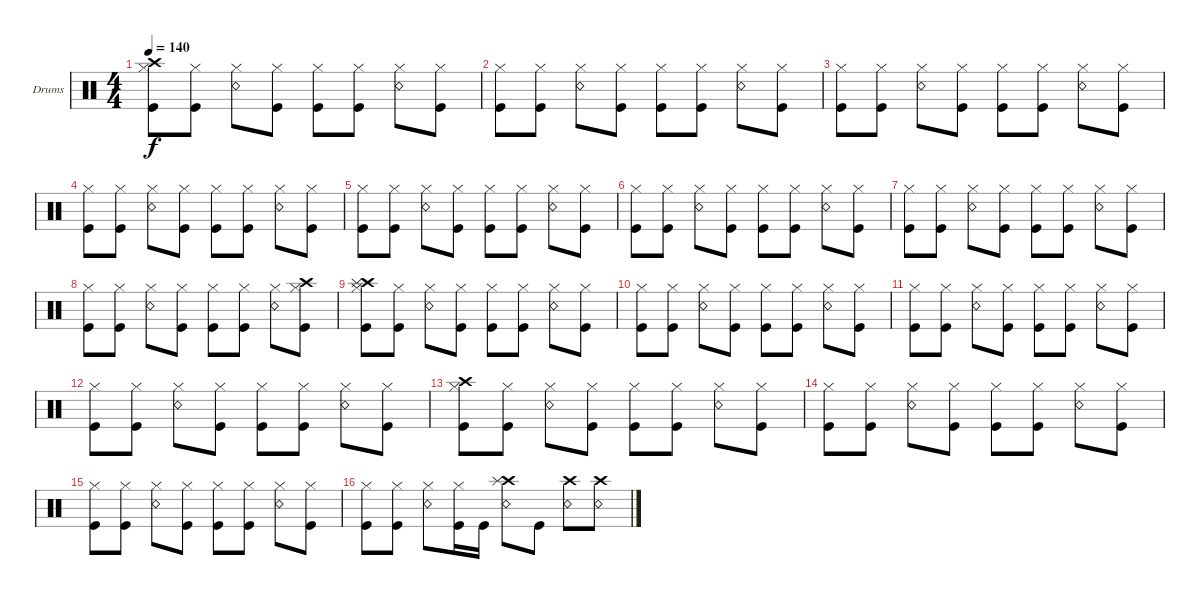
\bracketExtendMode groupsimilarinstruments
\firstSystemTrackNameOrientation horizontal
\otherSystemsTrackNameOrientation horizontal
\track ("Da Kurlzz - Drums" "Drums") {instrument percussion}
\staff {score}
\articulation defaults
\ts (4 4)
\tempo 140
\clef neutral
\ks c
("Kick (hit)" "Crash high (hit)" "Hi-Hat (closed)").8{dy f} ("Kick (hit)" "Hi-Hat (closed)").8 ("Snare (rim shot)" "Hi-Hat (closed)").8 ("Kick (hit)" "Hi-Hat (closed)").8 ("Kick (hit)" "Hi-Hat (closed)").8 ("Kick (hit)" "Hi-Hat (closed)").8 ("Snare (rim shot)" "Hi-Hat (closed)").8 ("Kick (hit)" "Hi-Hat (closed)").8 |
("Kick (hit)" "Hi-Hat (closed)").8 ("Kick (hit)" "Hi-Hat (closed)").8 ("Snare (rim shot)" "Hi-Hat (closed)").8 ("Kick (hit)" "Hi-Hat (closed)").8 ("Kick (hit)" "Hi-Hat (closed)").8 ("Kick (hit)" "Hi-Hat (closed)").8 ("Snare (rim shot)" "Hi-Hat (closed)").8 ("Kick (hit)" "Hi-Hat (closed)").8 |
("Kick (hit)" "Hi-Hat (closed)").8 ("Kick (hit)" "Hi-Hat (closed)").8 ("Snare (rim shot)" "Hi-Hat (closed)").8 ("Kick (hit)" "Hi-Hat (closed)").8 ("Kick (hit)" "Hi-Hat (closed)").8 ("Kick (hit)" "Hi-Hat (closed)").8 ("Snare (rim shot)" "Hi-Hat (closed)").8 ("Kick (hit)" "Hi-Hat (closed)").8 |
("Kick (hit)" "Hi-Hat (closed)").8 ("Kick (hit)" "Hi-Hat (closed)").8 ("Snare (rim shot)" "Hi-Hat (closed)").8 ("Kick (hit)" "Hi-Hat (closed)").8 ("Kick (hit)" "Hi-Hat (closed)").8 ("Kick (hit)" "Hi-Hat (closed)").8 ("Snare (rim shot)" "Hi-Hat (closed)").8 ("Kick (hit)" "Hi-Hat (closed)").8 |
("Kick (hit)" "Hi-Hat (closed)").8 ("Kick (hit)" "Hi-Hat (closed)").8 ("Snare (rim shot)" "Hi-Hat (closed)").8 ("Kick (hit)" "Hi-Hat (closed)").8 ("Kick (hit)" "Hi-Hat (closed)").8 ("Kick (hit)" "Hi-Hat (closed)").8 ("Snare (rim shot)" "Hi-Hat (closed)").8 ("Kick (hit)" "Hi-Hat (closed)").8 |
("Kick (hit)" "Hi-Hat (closed)").8 ("Kick (hit)" "Hi-Hat (closed)").8 ("Snare (rim shot)" "Hi-Hat (closed)").8 ("Kick (hit)" "Hi-Hat (closed)").8 ("Kick (hit)" "Hi-Hat (closed)").8 ("Kick (hit)" "Hi-Hat (closed)").8 ("Snare (rim shot)" "Hi-Hat (closed)").8 ("Kick (hit)" "Hi-Hat (closed)").8 |
("Kick (hit)" "Hi-Hat (closed)").8 ("Kick (hit)" "Hi-Hat (closed)").8 ("Snare (rim shot)" "Hi-Hat (closed)").8 ("Kick (hit)" "Hi-Hat (closed)").8 ("Kick (hit)" "Hi-Hat (closed)").8 ("Kick (hit)" "Hi-Hat (closed)").8 ("Snare (rim shot)" "Hi-Hat (closed)").8 ("Kick (hit)" "Hi-Hat (closed)").8 |
("Kick (hit)" "Hi-Hat (closed)").8 ("Kick (hit)" "Hi-Hat (closed)").8 ("Snare (rim shot)" "Hi-Hat (closed)").8 ("Kick (hit)" "Hi-Hat (closed)").8 ("Kick (hit)" "Hi-Hat (closed)").8 ("Kick (hit)" "Hi-Hat (closed)").8 ("Snare (rim shot)" "Hi-Hat (closed)").8 ("Kick (hit)" "Hi-Hat (closed)" "Crash high (hit)").8 |
("Kick (hit)" "Hi-Hat (closed)" "Crash high (hit)" "Splash (hit)").8 ("Kick (hit)" "Hi-Hat (closed)").8 ("Snare (rim shot)" "Hi-Hat (closed)").8 ("Kick (hit)" "Hi-Hat (closed)").8 ("Kick (hit)" "Hi-Hat (closed)").8 ("Kick (hit)" "Hi-Hat (closed)").8 ("Snare (rim shot)" "Hi-Hat (closed)").8 ("Kick (hit)" "Hi-Hat (closed)").8 |
("Kick (hit)" "Hi-Hat (closed)").8 ("Kick (hit)" "Hi-Hat (closed)").8 ("Snare (rim shot)" "Hi-Hat (closed)").8 ("Kick (hit)" "Hi-Hat (closed)").8 ("Kick (hit)" "Hi-Hat (closed)").8 ("Kick (hit)" "Hi-Hat (closed)").8 ("Snare (rim shot)" "Hi-Hat (closed)").8 ("Kick (hit)" "Hi-Hat (closed)").8 |
("Kick (hit)" "Hi-Hat (closed)").8 ("Kick (hit)" "Hi-Hat (closed)").8 ("Snare (rim shot)" "Hi-Hat (closed)").8 ("Kick (hit)" "Hi-Hat (closed)").8 ("Kick (hit)" "Hi-Hat (closed)").8 ("Kick (hit)" "Hi-Hat (closed)").8 ("Snare (rim shot)" "Hi-Hat (closed)").8 ("Kick (hit)" "Hi-Hat (closed)").8 |
("Kick (hit)" "Hi-Hat (closed)").8 ("Kick (hit)" "Hi-Hat (closed)").8 ("Snare (rim shot)" "Hi-Hat (closed)").8 ("Kick (hit)" "Hi-Hat (closed)").8 ("Kick (hit)" "Hi-Hat (closed)").8 ("Kick (hit)" "Hi-Hat (closed)").8 ("Snare (rim shot)" "Hi-Hat (closed)").8 ("Kick (hit)" "Hi-Hat (closed)").8 |
("Kick (hit)" "Hi-Hat (closed)" "Crash high (hit)").8 ("Kick (hit)" "Hi-Hat (closed)").8 ("Snare (rim shot)" "Hi-Hat (closed)").8 ("Kick (hit)" "Hi-Hat (closed)").8 ("Kick (hit)" "Hi-Hat (closed)").8 ("Kick (hit)" "Hi-Hat (closed)").8 ("Snare (rim shot)" "Hi-Hat (closed)").8 ("Kick (hit)" "Hi-Hat (closed)").8 |
("Kick (hit)" "Hi-Hat (closed)").8 ("Kick (hit)" "Hi-Hat (closed)").8 ("Snare (rim shot)" "Hi-Hat (closed)").8 ("Kick (hit)" "Hi-Hat (closed)").8 ("Kick (hit)" "Hi-Hat (closed)").8 ("Kick (hit)" "Hi-Hat (closed)").8 ("Snare (rim shot)" "Hi-Hat (closed)").8 ("Kick (hit)" "Hi-Hat (closed)").8 |
("Kick (hit)" "Hi-Hat (closed)").8 ("Kick (hit)" "Hi-Hat (closed)").8 ("Snare (rim shot)" "Hi-Hat (closed)").8 ("Kick (hit)" "Hi-Hat (closed)").8 ("Kick (hit)" "Hi-Hat (closed)").8 ("Kick (hit)" "Hi-Hat (closed)").8 ("Snare (rim shot)" "Hi-Hat (closed)").8 ("Kick (hit)" "Hi-Hat (closed)").8 |
("Kick (hit)" "Hi-Hat (closed)").8 ("Kick (hit)" "Hi-Hat (closed)").8 ("Snare (rim shot)" "Hi-Hat (closed)").8 ("Kick (hit)" "Hi-Hat (closed)").16 "Kick (hit)".16 ("Snare (rim shot)" "Crash high (hit)" "Splash (hit)").8 "Kick (hit)".8 ("Snare (rim shot)" "Crash high (hit)").8 ("Snare (rim shot)" "Crash high (hit)").8
